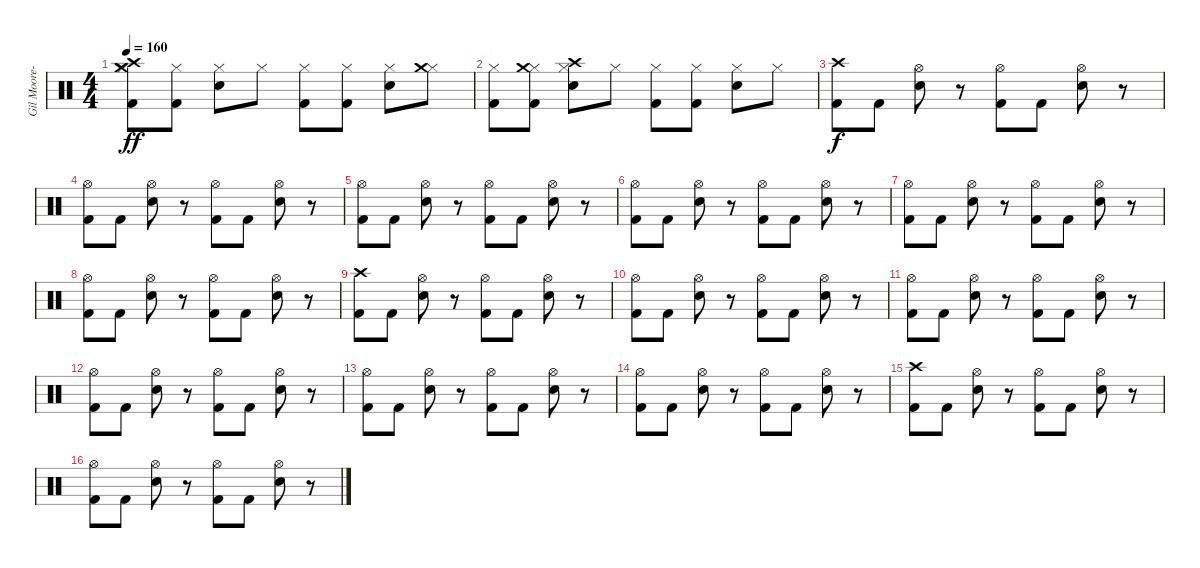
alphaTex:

\track ("Gil Moore-Drums n Vocals" "Gil Moore-") {instrument percussion}
\staff {score}
\articulation defaults
\ts (4 4)
\tempo 160
\clef neutral
\ks c
("Kick (hit) 2" "Hi-Hat (closed)" "Crash high (hit)" "Crash medium (hit)").8{dy ff} ("Kick (hit) 2" "Hi-Hat (closed)").8 ("Electric Snare (hit)" "Hi-Hat (closed)").8 "Hi-Hat (closed)".8 ("Kick (hit) 2" "Hi-Hat (closed)").8 ("Kick (hit) 2" "Hi-Hat (closed)").8 ("Electric Snare (hit)" "Hi-Hat (closed)").8 ("Hi-Hat (closed)" "Crash medium (hit)").8 |
("Kick (hit) 2" "Hi-Hat (closed)").8 ("Kick (hit) 2" "Hi-Hat (closed)" "Crash medium (hit)").8 ("Electric Snare (hit)" "Hi-Hat (closed)" "Crash high (hit)").8 "Hi-Hat (closed)".8 ("Kick (hit) 2" "Hi-Hat (closed)").8 ("Kick (hit) 2" "Hi-Hat (closed)").8 ("Electric Snare (hit)" "Hi-Hat (closed)").8 "Hi-Hat (closed)".8 |
("Kick (hit) 2" "Crash high (hit)").8{dy f} "Kick (hit) 2".8 ("Electric Snare (hit)" "Hi-Hat (open)").8 r.8 ("Kick (hit) 2" "Hi-Hat (open)").8 "Kick (hit) 2".8 ("Electric Snare (hit)" "Hi-Hat (open)").8 r.8 |
("Kick (hit) 2" "Hi-Hat (open)").8 "Kick (hit) 2".8 ("Electric Snare (hit)" "Hi-Hat (open)").8 r.8 ("Kick (hit) 2" "Hi-Hat (open)").8 "Kick (hit) 2".8 ("Electric Snare (hit)" "Hi-Hat (open)").8 r.8 |
("Kick (hit) 2" "Hi-Hat (open)").8 "Kick (hit) 2".8 ("Electric Snare (hit)" "Hi-Hat (open)").8 r.8 ("Kick (hit) 2" "Hi-Hat (open)").8 "Kick (hit) 2".8 ("Electric Snare (hit)" "Hi-Hat (open)").8 r.8 |
("Kick (hit) 2" "Hi-Hat (open)").8 "Kick (hit) 2".8 ("Electric Snare (hit)" "Hi-Hat (open)").8 r.8 ("Kick (hit) 2" "Hi-Hat (open)").8 "Kick (hit) 2".8 ("Electric Snare (hit)" "Hi-Hat (open)").8 r.8 |
("Kick (hit) 2" "Hi-Hat (open)").8 "Kick (hit) 2".8 ("Electric Snare (hit)" "Hi-Hat (open)").8 r.8 ("Kick (hit) 2" "Hi-Hat (open)").8 "Kick (hit) 2".8 ("Electric Snare (hit)" "Hi-Hat (open)").8 r.8 |
("Kick (hit) 2" "Hi-Hat (open)").8 "Kick (hit) 2".8 ("Electric Snare (hit)" "Hi-Hat (open)").8 r.8 ("Kick (hit) 2" "Hi-Hat (open)").8 "Kick (hit) 2".8 ("Electric Snare (hit)" "Hi-Hat (open)").8 r.8 |
("Kick (hit) 2" "Crash high (hit)").8 "Kick (hit) 2".8 ("Electric Snare (hit)" "Hi-Hat (open)").8 r.8 ("Kick (hit) 2" "Hi-Hat (open)").8 "Kick (hit) 2".8 ("Electric Snare (hit)" "Hi-Hat (open)").8 r.8 |
("Kick (hit) 2" "Hi-Hat (open)").8 "Kick (hit) 2".8 ("Electric Snare (hit)" "Hi-Hat (open)").8 r.8 ("Kick (hit) 2" "Hi-Hat (open)").8 "Kick (hit) 2".8 ("Electric Snare (hit)" "Hi-Hat (open)").8 r.8 |
("Kick (hit) 2" "Hi-Hat (open)").8 "Kick (hit) 2".8 ("Electric Snare (hit)" "Hi-Hat (open)").8 r.8 ("Kick (hit) 2" "Hi-Hat (open)").8 "Kick (hit) 2".8 ("Electric Snare (hit)" "Hi-Hat (open)").8 r.8 |
("Kick (hit) 2" "Hi-Hat (open)").8 "Kick (hit) 2".8 ("Electric Snare (hit)" "Hi-Hat (open)").8 r.8 ("Kick (hit) 2" "Hi-Hat (open)").8 "Kick (hit) 2".8 ("Electric Snare (hit)" "Hi-Hat (open)").8 r.8 |
("Kick (hit) 2" "Hi-Hat (open)").8 "Kick (hit) 2".8 ("Electric Snare (hit)" "Hi-Hat (open)").8 r.8 ("Kick (hit) 2" "Hi-Hat (open)").8 "Kick (hit) 2".8 ("Electric Snare (hit)" "Hi-Hat (open)").8 r.8 |
("Kick (hit) 2" "Hi-Hat (open)").8 "Kick (hit) 2".8 ("Electric Snare (hit)" "Hi-Hat (open)").8 r.8 ("Kick (hit) 2" "Hi-Hat (open)").8 "Kick (hit) 2".8 ("Electric Snare (hit)" "Hi-Hat (open)").8 r.8 |
("Kick (hit) 2" "Crash high (hit)").8 "Kick (hit) 2".8 ("Electric Snare (hit)" "Hi-Hat (open)").8 r.8 ("Kick (hit) 2" "Hi-Hat (open)").8 "Kick (hit) 2".8 ("Electric Snare (hit)" "Hi-Hat (open)").8 r.8 |
("Kick (hit) 2" "Hi-Hat (open)").8 "Kick (hit) 2".8 ("Electric Snare (hit)" "Hi-Hat (open)").8 r.8 ("Kick (hit) 2" "Hi-Hat (open)").8 "Kick (hit) 2".8 ("Electric Snare (hit)" "Hi-Hat (open)").8 r.8
